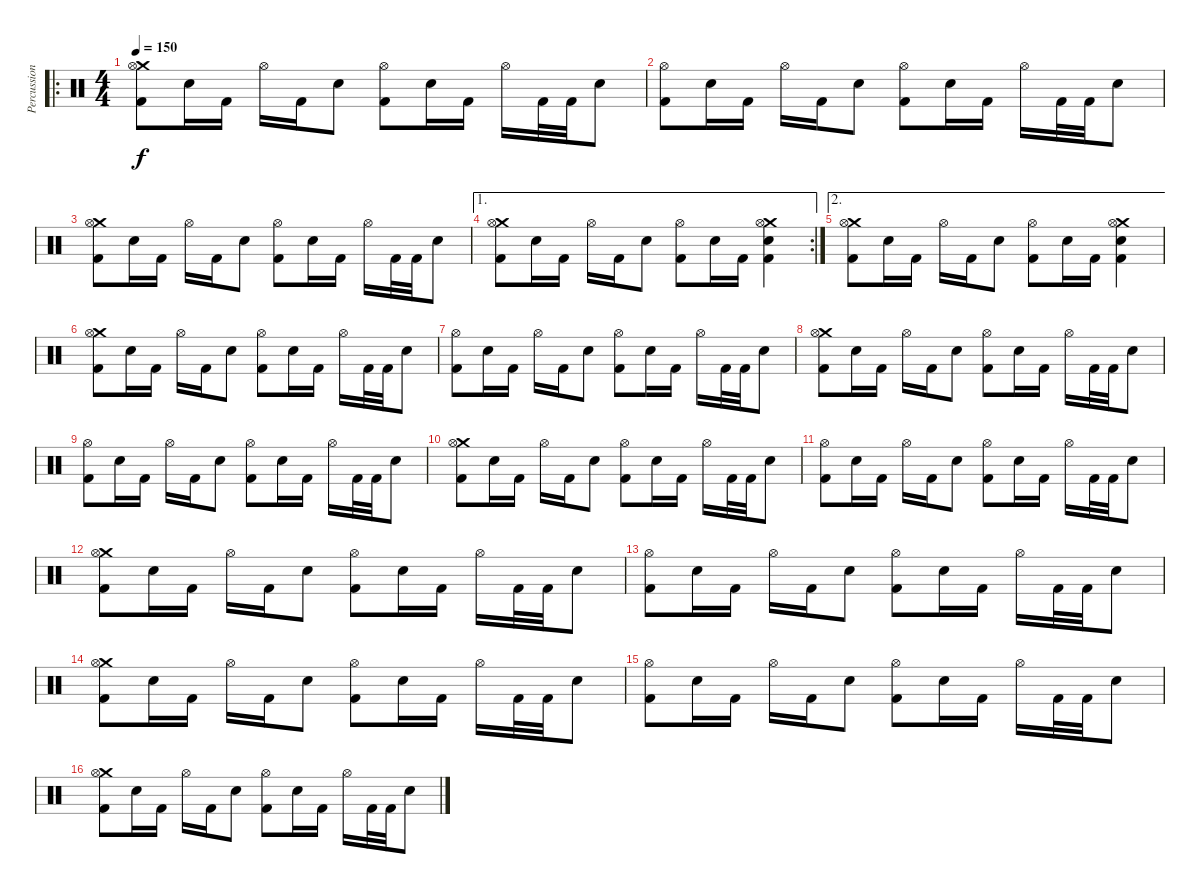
\track ("Percussion" "Percussion") {instrument percussion}
\staff {score}
\articulation defaults
\ro
\ts (4 4)
\tempo 150
\clef neutral
\ks c
("Crash medium (hit)" "Hi-Hat (open)" "Kick (hit) 2").8{dy f} "Electric Snare (hit)".16 "Kick (hit) 2".16 "Hi-Hat (open)".16 "Kick (hit) 2".16 "Electric Snare (hit)".8 ("Hi-Hat (open)" "Kick (hit) 2").8 "Electric Snare (hit)".16 "Kick (hit) 2".16 "Hi-Hat (open)".16 "Kick (hit) 2".32 "Kick (hit) 2".32 "Electric Snare (hit)".8 |
("Hi-Hat (open)" "Kick (hit) 2").8 "Electric Snare (hit)".16 "Kick (hit) 2".16 "Hi-Hat (open)".16 "Kick (hit) 2".16 "Electric Snare (hit)".8 ("Hi-Hat (open)" "Kick (hit) 2").8 "Electric Snare (hit)".16 "Kick (hit) 2".16 "Hi-Hat (open)".16 "Kick (hit) 2".32 "Kick (hit) 2".32 "Electric Snare (hit)".8 |
("Crash medium (hit)" "Hi-Hat (open)" "Kick (hit) 2").8 "Electric Snare (hit)".16 "Kick (hit) 2".16 "Hi-Hat (open)".16 "Kick (hit) 2".16 "Electric Snare (hit)".8 ("Hi-Hat (open)" "Kick (hit) 2").8 "Electric Snare (hit)".16 "Kick (hit) 2".16 "Hi-Hat (open)".16 "Kick (hit) 2".32 "Kick (hit) 2".32 "Electric Snare (hit)".8 |
\ae 1
\rc 2
("Crash medium (hit)" "Hi-Hat (open)" "Kick (hit) 2").8 "Electric Snare (hit)".16 "Kick (hit) 2".16 "Hi-Hat (open)".16 "Kick (hit) 2".16 "Electric Snare (hit)".8 ("Hi-Hat (open)" "Kick (hit) 2").8 "Electric Snare (hit)".16 "Kick (hit) 2".16 ("Crash medium (hit)" "Hi-Hat (open)" "Electric Snare (hit)" "Kick (hit) 2").4 |
\ae 2
("Crash medium (hit)" "Hi-Hat (open)" "Kick (hit) 2").8 "Electric Snare (hit)".16 "Kick (hit) 2".16 "Hi-Hat (open)".16 "Kick (hit) 2".16 "Electric Snare (hit)".8 ("Hi-Hat (open)" "Kick (hit) 2").8 "Electric Snare (hit)".16 "Kick (hit) 2".16 ("Crash medium (hit)" "Hi-Hat (open)" "Electric Snare (hit)" "Kick (hit) 2").4 |
("Crash medium (hit)" "Hi-Hat (open)" "Kick (hit) 2").8 "Electric Snare (hit)".16 "Kick (hit) 2".16 "Hi-Hat (open)".16 "Kick (hit) 2".16 "Electric Snare (hit)".8 ("Hi-Hat (open)" "Kick (hit) 2").8 "Electric Snare (hit)".16 "Kick (hit) 2".16 "Hi-Hat (open)".16 "Kick (hit) 2".32 "Kick (hit) 2".32 "Electric Snare (hit)".8 |
("Hi-Hat (open)" "Kick (hit) 2").8 "Electric Snare (hit)".16 "Kick (hit) 2".16 "Hi-Hat (open)".16 "Kick (hit) 2".16 "Electric Snare (hit)".8 ("Hi-Hat (open)" "Kick (hit) 2").8 "Electric Snare (hit)".16 "Kick (hit) 2".16 "Hi-Hat (open)".16 "Kick (hit) 2".32 "Kick (hit) 2".32 "Electric Snare (hit)".8 |
("Crash medium (hit)" "Hi-Hat (open)" "Kick (hit) 2").8 "Electric Snare (hit)".16 "Kick (hit) 2".16 "Hi-Hat (open)".16 "Kick (hit) 2".16 "Electric Snare (hit)".8 ("Hi-Hat (open)" "Kick (hit) 2").8 "Electric Snare (hit)".16 "Kick (hit) 2".16 "Hi-Hat (open)".16 "Kick (hit) 2".32 "Kick (hit) 2".32 "Electric Snare (hit)".8 |
("Hi-Hat (open)" "Kick (hit) 2").8 "Electric Snare (hit)".16 "Kick (hit) 2".16 "Hi-Hat (open)".16 "Kick (hit) 2".16 "Electric Snare (hit)".8 ("Hi-Hat (open)" "Kick (hit) 2").8 "Electric Snare (hit)".16 "Kick (hit) 2".16 "Hi-Hat (open)".16 "Kick (hit) 2".32 "Kick (hit) 2".32 "Electric Snare (hit)".8 |
("Crash medium (hit)" "Hi-Hat (open)" "Kick (hit) 2").8 "Electric Snare (hit)".16 "Kick (hit) 2".16 "Hi-Hat (open)".16 "Kick (hit) 2".16 "Electric Snare (hit)".8 ("Hi-Hat (open)" "Kick (hit) 2").8 "Electric Snare (hit)".16 "Kick (hit) 2".16 "Hi-Hat (open)".16 "Kick (hit) 2".32 "Kick (hit) 2".32 "Electric Snare (hit)".8 |
("Hi-Hat (open)" "Kick (hit) 2").8 "Electric Snare (hit)".16 "Kick (hit) 2".16 "Hi-Hat (open)".16 "Kick (hit) 2".16 "Electric Snare (hit)".8 ("Hi-Hat (open)" "Kick (hit) 2").8 "Electric Snare (hit)".16 "Kick (hit) 2".16 "Hi-Hat (open)".16 "Kick (hit) 2".32 "Kick (hit) 2".32 "Electric Snare (hit)".8 |
("Crash medium (hit)" "Hi-Hat (open)" "Kick (hit) 2").8 "Electric Snare (hit)".16 "Kick (hit) 2".16 "Hi-Hat (open)".16 "Kick (hit) 2".16 "Electric Snare (hit)".8 ("Hi-Hat (open)" "Kick (hit) 2").8 "Electric Snare (hit)".16 "Kick (hit) 2".16 "Hi-Hat (open)".16 "Kick (hit) 2".32 "Kick (hit) 2".32 "Electric Snare (hit)".8 |
("Hi-Hat (open)" "Kick (hit) 2").8 "Electric Snare (hit)".16 "Kick (hit) 2".16 "Hi-Hat (open)".16 "Kick (hit) 2".16 "Electric Snare (hit)".8 ("Hi-Hat (open)" "Kick (hit) 2").8 "Electric Snare (hit)".16 "Kick (hit) 2".16 "Hi-Hat (open)".16 "Kick (hit) 2".32 "Kick (hit) 2".32 "Electric Snare (hit)".8 |
("Crash medium (hit)" "Hi-Hat (open)" "Kick (hit) 2").8 "Electric Snare (hit)".16 "Kick (hit) 2".16 "Hi-Hat (open)".16 "Kick (hit) 2".16 "Electric Snare (hit)".8 ("Hi-Hat (open)" "Kick (hit) 2").8 "Electric Snare (hit)".16 "Kick (hit) 2".16 "Hi-Hat (open)".16 "Kick (hit) 2".32 "Kick (hit) 2".32 "Electric Snare (hit)".8 |
("Hi-Hat (open)" "Kick (hit) 2").8 "Electric Snare (hit)".16 "Kick (hit) 2".16 "Hi-Hat (open)".16 "Kick (hit) 2".16 "Electric Snare (hit)".8 ("Hi-Hat (open)" "Kick (hit) 2").8 "Electric Snare (hit)".16 "Kick (hit) 2".16 "Hi-Hat (open)".16 "Kick (hit) 2".32 "Kick (hit) 2".32 "Electric Snare (hit)".8 |
("Crash medium (hit)" "Hi-Hat (open)" "Kick (hit) 2").8 "Electric Snare (hit)".16 "Kick (hit) 2".16 "Hi-Hat (open)".16 "Kick (hit) 2".16 "Electric Snare (hit)".8 ("Hi-Hat (open)" "Kick (hit) 2").8 "Electric Snare (hit)".16 "Kick (hit) 2".16 "Hi-Hat (open)".16 "Kick (hit) 2".32 "Kick (hit) 2".32 "Electric Snare (hit)".8
